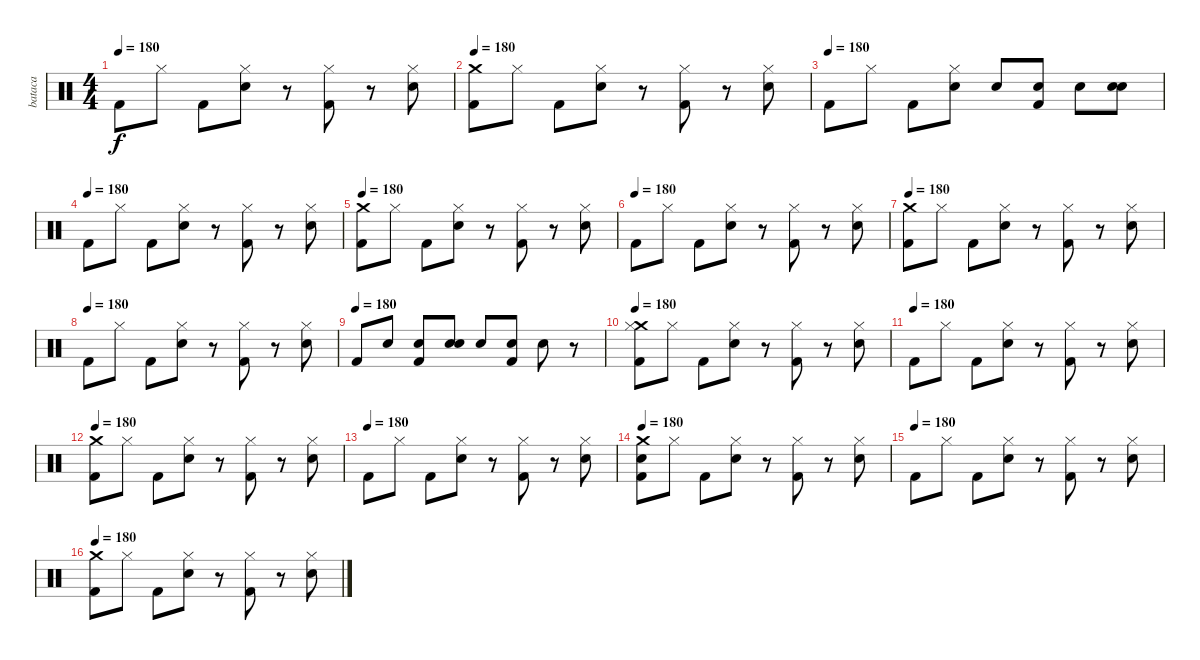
\track ("bataca" "bataca") {instrument percussion}
\staff {score}
\articulation defaults
\ts (4 4)
\tempo 180
\clef neutral
\ks c "Kick (hit) 2".8{dy f} "Hi-Hat (closed)".8 "Kick (hit) 2".8
("Hi-Hat (closed)" "Snare (hit) 2").8 r.8 ("Hi-Hat (closed)" "Kick (hit) 2").8 r.8 ("Hi-Hat (closed)" "Snare (hit) 2").8 |
\tempo 180
("Crash medium (hit)" "Kick (hit) 2").8 "Hi-Hat (closed)".8 "Kick (hit) 2".8 ("Hi-Hat (closed)" "Snare (hit) 2").8 r.8 ("Hi-Hat (closed)" "Kick (hit) 2").8 r.8 ("Hi-Hat (closed)" "Snare (hit) 2").8 |
\tempo (180)
"Kick (hit) 2".8 "Hi-Hat (closed)".8 "Kick (hit) 2".8 ("Hi-Hat (closed)" "Snare (hit) 2").8 "Snare (hit) 2".8 ("Snare (hit) 2" "Kick (hit) 2").8 "Snare (hit) 2".8 ("Snare (hit) 2" "Snare (hit) 2").8 |
\tempo (180)
"Kick (hit) 2".8 "Hi-Hat (closed)".8 "Kick (hit) 2".8 ("Hi-Hat (closed)" "Snare (hit) 2").8 r.8 ("Hi-Hat (closed)" "Kick (hit) 2").8 r.8 ("Hi-Hat (closed)" "Snare (hit) 2").8 |
\tempo 180
("Crash medium (hit)" "Kick (hit) 2").8 "Hi-Hat (closed)".8 "Kick (hit) 2".8 ("Hi-Hat (closed)" "Snare (hit) 2").8 r.8 ("Hi-Hat (closed)" "Kick (hit) 2").8 r.8 ("Hi-Hat (closed)" "Snare (hit) 2").8 |
\tempo (180)
"Kick (hit) 2".8 "Hi-Hat (closed)".8 "Kick (hit) 2".8 ("Hi-Hat (closed)" "Snare (hit) 2").8 r.8 ("Hi-Hat (closed)" "Kick (hit) 2").8 r.8 ("Hi-Hat (closed)" "Snare (hit) 2").8 |
\tempo 180
("Crash medium (hit)" "Kick (hit) 2").8 "Hi-Hat (closed)".8 "Kick (hit) 2".8 ("Hi-Hat (closed)" "Snare (hit) 2").8 r.8 ("Hi-Hat (closed)" "Kick (hit) 2").8 r.8 ("Hi-Hat (closed)" "Snare (hit) 2").8 |
\tempo (180)
"Kick (hit) 2".8 "Hi-Hat (closed)".8 "Kick (hit) 2".8 ("Hi-Hat (closed)" "Snare (hit) 2").8 r.8 ("Hi-Hat (closed)" "Kick (hit) 2").8 r.8 ("Hi-Hat (closed)" "Snare (hit) 2").8 |
\tempo (180)
"Kick (hit) 2".8 "Snare (hit) 2".8 ("Snare (hit) 2" "Kick (hit) 2").8 ("Snare (hit) 2" "Snare (hit) 2").8 "Snare (hit) 2".8 ("Snare (hit) 2" "Kick (hit) 2").8 "Snare (hit) 2".8 r.8 |
\tempo 180
("Crash medium (hit)" "Hi-Hat (closed)" "Kick (hit) 2").8 "Hi-Hat (closed)".8 "Kick (hit) 2".8 ("Hi-Hat (closed)" "Snare (hit) 2").8 r.8 ("Hi-Hat (closed)" "Kick (hit) 2").8 r.8 ("Hi-Hat (closed)" "Snare (hit) 2").8 |
\tempo (180)
"Kick (hit) 2".8 "Hi-Hat (closed)".8 "Kick (hit) 2".8 ("Hi-Hat (closed)" "Snare (hit) 2").8 r.8 ("Hi-Hat (closed)" "Kick (hit) 2").8 r.8 ("Hi-Hat (closed)" "Snare (hit) 2").8 |
\tempo 180
("Crash medium (hit)" "Kick (hit) 2").8 "Hi-Hat (closed)".8 "Kick (hit) 2".8 ("Hi-Hat (closed)" "Snare (hit) 2").8 r.8 ("Hi-Hat (closed)" "Kick (hit) 2").8 r.8 ("Hi-Hat (closed)" "Snare (hit) 2").8 |
\tempo (180)
"Kick (hit) 2".8 "Hi-Hat (closed)".8 "Kick (hit) 2".8 ("Hi-Hat (closed)" "Snare (hit) 2").8 r.8 ("Hi-Hat (closed)" "Kick (hit) 2").8 r.8 ("Hi-Hat (closed)" "Snare (hit) 2").8 |
\tempo 180
("Crash medium (hit)" "Snare (hit) 2" "Kick (hit) 2").8 "Hi-Hat (closed)".8 "Kick (hit) 2".8 ("Hi-Hat (closed)" "Snare (hit) 2").8 r.8 ("Hi-Hat (closed)" "Kick (hit) 2").8 r.8 ("Hi-Hat (closed)" "Snare (hit) 2").8 |
\tempo (180)
"Kick (hit) 2".8 "Hi-Hat (closed)".8 "Kick (hit) 2".8 ("Hi-Hat (closed)" "Snare (hit) 2").8 r.8 ("Hi-Hat (closed)" "Kick (hit) 2").8 r.8 ("Hi-Hat (closed)" "Snare (hit) 2").8 |
\tempo 180
("Crash medium (hit)" "Kick (hit) 2").8 "Hi-Hat (closed)".8 "Kick (hit) 2".8 ("Hi-Hat (closed)" "Snare (hit) 2").8 r.8 ("Hi-Hat (closed)" "Kick (hit) 2").8 r.8 ("Hi-Hat (closed)" "Snare (hit) 2").8
